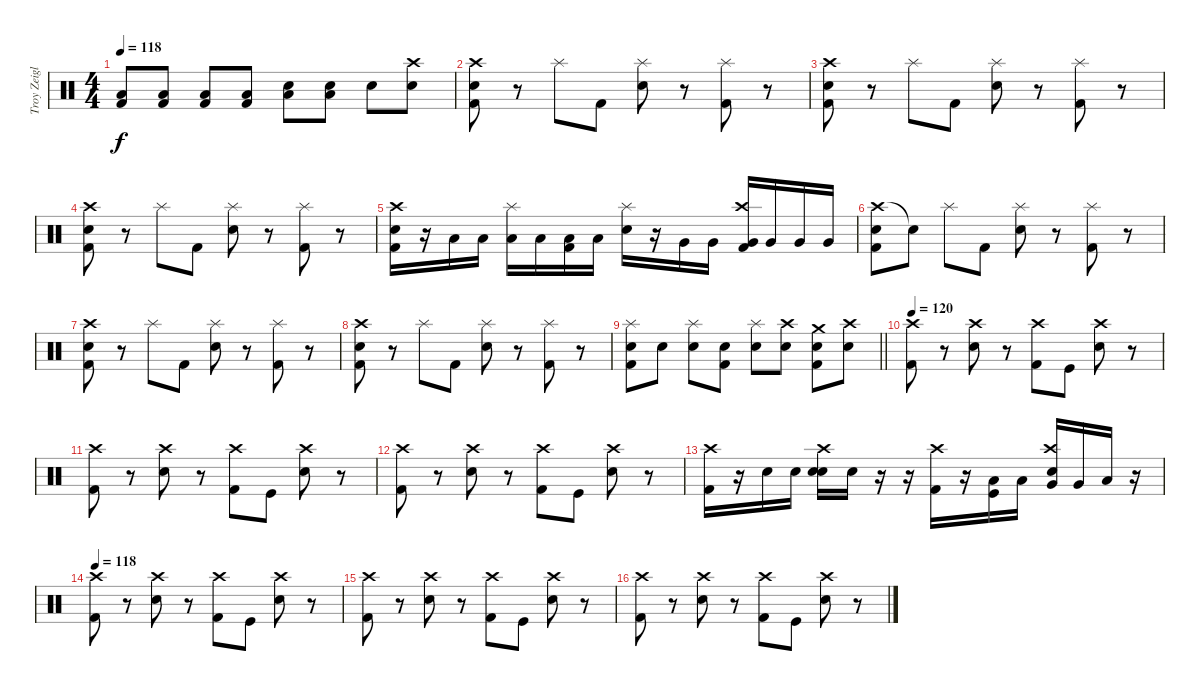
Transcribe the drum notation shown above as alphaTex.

\track ("Troy Zeigler (Drums)" "Troy Zeigl") {instrument percussion}
\staff {score}
\articulation defaults
\ts (4 4)
\tempo 118
\clef neutral
\ks c
("Kick (hit) 2" "Low Floor Tom (hit)").8{dy f} ("Kick (hit) 2" "Low Floor Tom (hit)").8 ("Kick (hit) 2" "Low Floor Tom (hit)").8 ("Kick (hit) 2" "Low Floor Tom (hit)").8 ("Snare (hit) 2" "Low Floor Tom (hit)").8 ("Snare (hit) 2" "Low Floor Tom (hit)").8 "Snare (hit) 2".8 ("Crash high (hit)" "Snare (hit) 2").8 |
("Crash high (hit)" "Kick (hit) 2" "Snare (hit) 2").8 r.8 "Splash (hit)".8 "Kick (hit) 2".8 ("Splash (hit)" "Snare (hit) 2").8 r.8 ("Splash (hit)" "Kick (hit) 2").8 r.8 |
("Crash high (hit)" "Kick (hit) 2" "Snare (hit) 2").8 r.8 "Splash (hit)".8 "Kick (hit) 2".8 ("Splash (hit)" "Snare (hit) 2").8 r.8 ("Splash (hit)" "Kick (hit) 2").8 r.8 |
("Crash high (hit)" "Kick (hit) 2" "Snare (hit) 2").8 r.8 "Splash (hit)".8 "Kick (hit) 2".8 ("Splash (hit)" "Snare (hit) 2").8 r.8 ("Splash (hit)" "Kick (hit) 2").8 r.8 |
("Crash high (hit)" "Kick (hit) 2" "Snare (hit) 2").16 r.16 "Low Floor Tom (hit)".16 "Low Floor Tom (hit)".16 ("Splash (hit)" "Low Floor Tom (hit)").16 "Low Floor Tom (hit)".16 ("Kick (hit) 2" "Low Floor Tom (hit)").16 "Low Floor Tom (hit)".16 ("Splash (hit)" "Snare (hit) 2").16 r.16 "Very Low Tom (hit)".16 "Very Low Tom (hit)".16 ("Crash high (hit)" "Kick (hit) 2" "Very Low Tom (hit)").16 "Very Low Tom (hit)".16 "Very Low Tom (hit)".16 "Very Low Tom (hit)".16 |
("Crash high (hit)" "Kick (hit) 2" "Snare (hit) 2").8 "Snare (hit)"{t}.8 "Splash (hit)".8 "Kick (hit) 2".8 ("Splash (hit)" "Snare (hit) 2").8 r.8 ("Splash (hit)" "Kick (hit) 2").8 r.8 |
("Crash high (hit)" "Kick (hit) 2" "Snare (hit) 2").8 r.8 "Splash (hit)".8 "Kick (hit) 2".8 ("Splash (hit)" "Snare (hit) 2").8 r.8 ("Splash (hit)" "Kick (hit) 2").8 r.8 |
("Crash high (hit)" "Kick (hit) 2" "Snare (hit) 2").8 r.8 "Splash (hit)".8 "Kick (hit) 2".8 ("Splash (hit)" "Snare (hit) 2").8 r.8 ("Splash (hit)" "Kick (hit) 2").8 r.8 |
\barLineRight lightlight
("Splash (hit)" "Kick (hit) 2" "Snare (hit) 2").8 "Snare (hit) 2".8 ("Splash (hit)" "Snare (hit) 2").8 ("Kick (hit) 2" "Snare (hit) 2").8 ("Splash (hit)" "Snare (hit) 2").8 ("Crash high (hit)" "Snare (hit) 2").8 ("Crash medium (hit)" "Kick (hit) 2" "Snare (hit) 2").8 ("Crash high (hit)" "Snare (hit) 2").8 |
\tempo 114
\tempo 120
("Crash high (hit)" "Kick (hit) 2").8 r.8 ("Crash high (hit)" "Snare (hit) 2").8 r.8 ("Crash high (hit)" "Kick (hit) 2").8 "Kick (hit)".8 ("Crash high (hit)" "Snare (hit) 2").8 r.8 |
("Crash high (hit)" "Kick (hit) 2").8 r.8 ("Crash high (hit)" "Snare (hit) 2").8 r.8 ("Crash high (hit)" "Kick (hit) 2").8 "Kick (hit)".8 ("Crash high (hit)" "Snare (hit) 2").8 r.8 |
("Crash high (hit)" "Kick (hit) 2").8 r.8 ("Crash high (hit)" "Snare (hit) 2").8 r.8 ("Crash high (hit)" "Kick (hit) 2").8 "Kick (hit)".8 ("Crash high (hit)" "Snare (hit) 2").8 r.8 |
("Crash high (hit)" "Kick (hit) 2").16 r.16 "Snare (hit) 2".16 "Snare (hit) 2".16 ("Crash high (hit)" "Snare (hit) 2" "Snare (hit) 2").16 "Snare (hit) 2".16 r.16 r.16 ("Crash high (hit)" "Kick (hit) 2").16 r.16 ("Kick (hit)" "Low Tom (hit)").16 "Low Tom (hit)".16 ("Crash high (hit)" "Snare (hit) 2" "Very Low Tom (hit)").16 "Very Low Tom (hit)".16 "Low Floor Tom (hit)".16 r.16 |
\tempo 118
("Crash high (hit)" "Kick (hit) 2").8 r.8 ("Crash high (hit)" "Snare (hit) 2").8 r.8 ("Crash high (hit)" "Kick (hit) 2").8 "Kick (hit)".8 ("Crash high (hit)" "Snare (hit) 2").8 r.8 |
("Crash high (hit)" "Kick (hit) 2").8 r.8 ("Crash high (hit)" "Snare (hit) 2").8 r.8 ("Crash high (hit)" "Kick (hit) 2").8 "Kick (hit)".8 ("Crash high (hit)" "Snare (hit) 2").8 r.8 |
("Crash high (hit)" "Kick (hit) 2").8 r.8 ("Crash high (hit)" "Snare (hit) 2").8 r.8 ("Crash high (hit)" "Kick (hit) 2").8 "Kick (hit)".8 ("Crash high (hit)" "Snare (hit) 2").8 r.8
